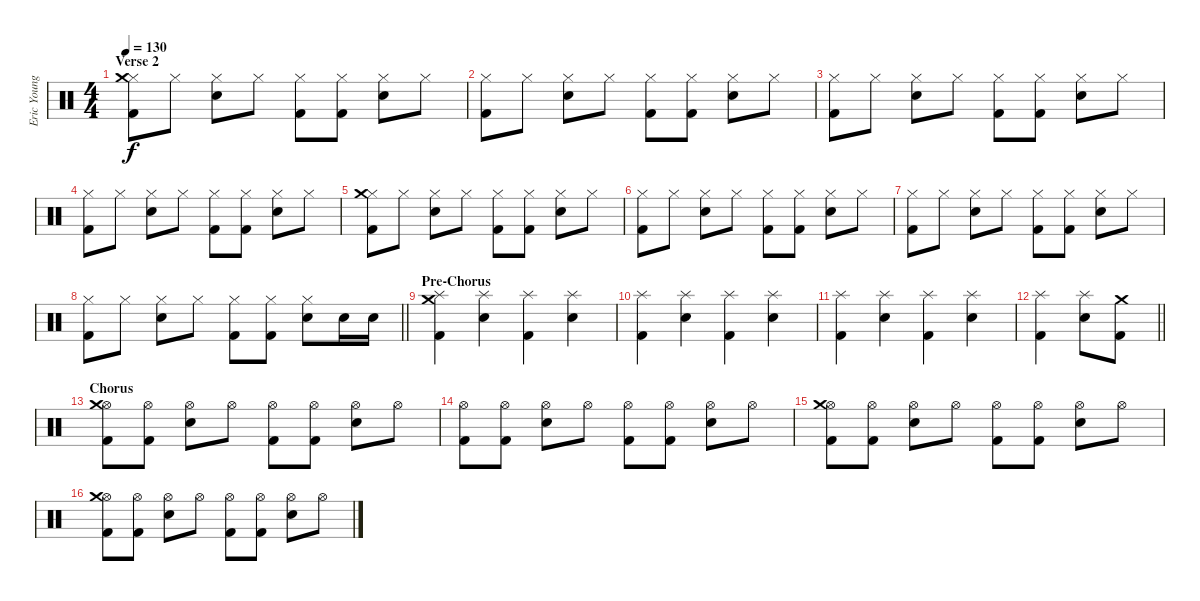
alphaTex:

\track ("Eric Young (Drums)" "Eric Young") {instrument percussion}
\staff {score}
\articulation defaults
\ts (4 4)
\section ("" "Verse 2")
\tempo 130
\clef neutral
\ks c
("Hi-Hat (closed)" "Kick (hit) 2" "Crash medium (hit)").8{dy f} "Hi-Hat (closed)".8 ("Hi-Hat (closed)" "Snare (hit) 2").8 "Hi-Hat (closed)".8 ("Hi-Hat (closed)" "Kick (hit) 2").8 ("Hi-Hat (closed)" "Kick (hit) 2").8 ("Hi-Hat (closed)" "Snare (hit) 2").8 "Hi-Hat (closed)".8 |
("Hi-Hat (closed)" "Kick (hit) 2").8 "Hi-Hat (closed)".8 ("Hi-Hat (closed)" "Snare (hit) 2").8 "Hi-Hat (closed)".8 ("Hi-Hat (closed)" "Kick (hit) 2").8 ("Hi-Hat (closed)" "Kick (hit) 2").8 ("Hi-Hat (closed)" "Snare (hit) 2").8 "Hi-Hat (closed)".8 |
("Hi-Hat (closed)" "Kick (hit) 2").8 "Hi-Hat (closed)".8 ("Hi-Hat (closed)" "Snare (hit) 2").8 "Hi-Hat (closed)".8 ("Hi-Hat (closed)" "Kick (hit) 2").8 ("Hi-Hat (closed)" "Kick (hit) 2").8 ("Hi-Hat (closed)" "Snare (hit) 2").8 "Hi-Hat (closed)".8 |
("Hi-Hat (closed)" "Kick (hit) 2").8 "Hi-Hat (closed)".8 ("Hi-Hat (closed)" "Snare (hit) 2").8 "Hi-Hat (closed)".8 ("Hi-Hat (closed)" "Kick (hit) 2").8 ("Hi-Hat (closed)" "Kick (hit) 2").8 ("Hi-Hat (closed)" "Snare (hit) 2").8 "Hi-Hat (closed)".8 |
("Hi-Hat (closed)" "Kick (hit) 2" "Crash medium (hit)").8 "Hi-Hat (closed)".8 ("Hi-Hat (closed)" "Snare (hit) 2").8 "Hi-Hat (closed)".8 ("Hi-Hat (closed)" "Kick (hit) 2").8 ("Hi-Hat (closed)" "Kick (hit) 2").8 ("Hi-Hat (closed)" "Snare (hit) 2").8 "Hi-Hat (closed)".8 |
("Hi-Hat (closed)" "Kick (hit) 2").8 "Hi-Hat (closed)".8 ("Hi-Hat (closed)" "Snare (hit) 2").8 "Hi-Hat (closed)".8 ("Hi-Hat (closed)" "Kick (hit) 2").8 ("Hi-Hat (closed)" "Kick (hit) 2").8 ("Hi-Hat (closed)" "Snare (hit) 2").8 "Hi-Hat (closed)".8 |
("Hi-Hat (closed)" "Kick (hit) 2").8 "Hi-Hat (closed)".8 ("Hi-Hat (closed)" "Snare (hit) 2").8 "Hi-Hat (closed)".8 ("Hi-Hat (closed)" "Kick (hit) 2").8 ("Hi-Hat (closed)" "Kick (hit) 2").8 ("Hi-Hat (closed)" "Snare (hit) 2").8 "Hi-Hat (closed)".8 |
\barLineRight lightlight
("Hi-Hat (closed)" "Kick (hit) 2").8 "Hi-Hat (closed)".8 ("Hi-Hat (closed)" "Snare (hit) 2").8 "Hi-Hat (closed)".8 ("Hi-Hat (closed)" "Kick (hit) 2").8 ("Hi-Hat (closed)" "Kick (hit) 2").8 ("Hi-Hat (closed)" "Snare (hit) 2").8 "Snare (hit) 2".16 "Snare (hit) 2".16 |
\section ("" "Pre-Chorus")
("Splash (hit)" "Kick (hit) 2" "Crash medium (hit)").4 ("Splash (hit)" "Snare (hit) 2").4 ("Splash (hit)" "Kick (hit) 2").4 ("Splash (hit)" "Snare (hit) 2").4 |
("Splash (hit)" "Kick (hit) 2").4 ("Splash (hit)" "Snare (hit) 2").4 ("Splash (hit)" "Kick (hit) 2").4 ("Splash (hit)" "Snare (hit) 2").4 |
("Splash (hit)" "Kick (hit) 2").4 ("Splash (hit)" "Snare (hit) 2").4 ("Splash (hit)" "Kick (hit) 2").4 ("Splash (hit)" "Snare (hit) 2").4 |
\barLineRight lightlight
("Splash (hit)" "Kick (hit) 2").4 ("Splash (hit)" "Snare (hit) 2").8 ("Kick (hit) 2" "Crash medium (hit)").8 |
\section ("" "Chorus")
("Hi-Hat (open)" "Kick (hit) 2" "Crash medium (hit)").8 ("Hi-Hat (open)" "Kick (hit) 2").8 ("Hi-Hat (open)" "Snare (hit) 2").8 "Hi-Hat (open)".8 ("Hi-Hat (open)" "Kick (hit) 2").8 ("Hi-Hat (open)" "Kick (hit) 2").8 ("Hi-Hat (open)" "Snare (hit) 2").8 "Hi-Hat (open)".8 |
("Hi-Hat (open)" "Kick (hit) 2").8 ("Hi-Hat (open)" "Kick (hit) 2").8 ("Hi-Hat (open)" "Snare (hit) 2").8 "Hi-Hat (open)".8 ("Hi-Hat (open)" "Kick (hit) 2").8 ("Hi-Hat (open)" "Kick (hit) 2").8 ("Hi-Hat (open)" "Snare (hit) 2").8 "Hi-Hat (open)".8 |
("Hi-Hat (open)" "Kick (hit) 2" "Crash medium (hit)").8 ("Hi-Hat (open)" "Kick (hit) 2").8 ("Hi-Hat (open)" "Snare (hit) 2").8 "Hi-Hat (open)".8 ("Hi-Hat (open)" "Kick (hit) 2").8 ("Hi-Hat (open)" "Kick (hit) 2").8 ("Hi-Hat (open)" "Snare (hit) 2").8 "Hi-Hat (open)".8 |
("Hi-Hat (open)" "Kick (hit) 2" "Crash medium (hit)").8 ("Hi-Hat (open)" "Kick (hit) 2").8 ("Hi-Hat (open)" "Snare (hit) 2").8 "Hi-Hat (open)".8 ("Hi-Hat (open)" "Kick (hit) 2").8 ("Hi-Hat (open)" "Kick (hit) 2").8 ("Hi-Hat (open)" "Snare (hit) 2").8 "Hi-Hat (open)".8
